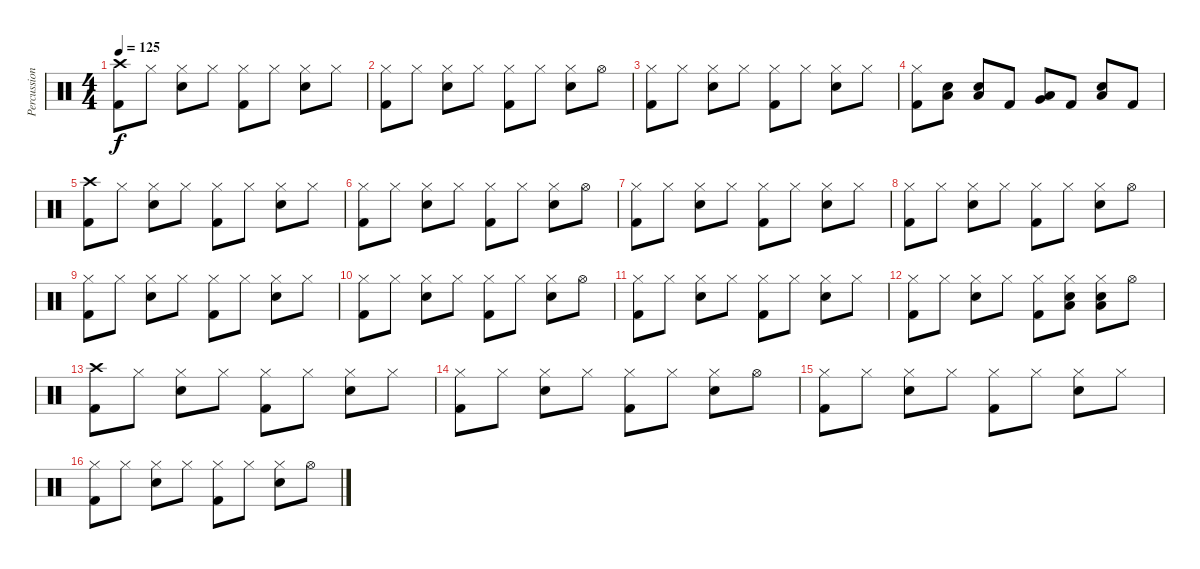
\track ("Percussion" "Percussion") {instrument percussion}
\staff {score}
\articulation defaults
\ts (4 4)
\tempo 125
\clef neutral
\ks c
("Crash high (hit)" "Kick (hit) 2").8{dy f} "Hi-Hat (closed)".8 ("Hi-Hat (closed)" "Snare (hit) 2").8 "Hi-Hat (closed)".8 ("Hi-Hat (closed)" "Kick (hit) 2").8 "Hi-Hat (closed)".8 ("Hi-Hat (closed)" "Snare (hit) 2").8 "Hi-Hat (closed)".8 |
("Hi-Hat (closed)" "Kick (hit) 2").8 "Hi-Hat (closed)".8 ("Hi-Hat (closed)" "Snare (hit) 2").8 "Hi-Hat (closed)".8 ("Hi-Hat (closed)" "Kick (hit) 2").8 "Hi-Hat (closed)".8 ("Hi-Hat (closed)" "Snare (hit) 2").8 "Hi-Hat (open)".8 |
("Hi-Hat (closed)" "Kick (hit) 2").8 "Hi-Hat (closed)".8 ("Hi-Hat (closed)" "Snare (hit) 2").8 "Hi-Hat (closed)".8 ("Hi-Hat (closed)" "Kick (hit) 2").8 "Hi-Hat (closed)".8 ("Hi-Hat (closed)" "Snare (hit) 2").8 "Hi-Hat (closed)".8 |
("Hi-Hat (closed)" "Kick (hit) 2").8 ("Snare (hit) 2" "Low Floor Tom (hit)").8 ("Snare (hit) 2" "Low Floor Tom (hit)").8 "Kick (hit) 2".8 ("Very Low Tom (hit)" "Low Floor Tom (hit)").8 "Kick (hit) 2".8 ("Snare (hit) 2" "Low Floor Tom (hit)").8 "Kick (hit) 2".8 |
("Crash high (hit)" "Kick (hit) 2").8 "Hi-Hat (closed)".8 ("Hi-Hat (closed)" "Snare (hit) 2").8 "Hi-Hat (closed)".8 ("Hi-Hat (closed)" "Kick (hit) 2").8 "Hi-Hat (closed)".8 ("Hi-Hat (closed)" "Snare (hit) 2").8 "Hi-Hat (closed)".8 |
("Hi-Hat (closed)" "Kick (hit) 2").8 "Hi-Hat (closed)".8 ("Hi-Hat (closed)" "Snare (hit) 2").8 "Hi-Hat (closed)".8 ("Hi-Hat (closed)" "Kick (hit) 2").8 "Hi-Hat (closed)".8 ("Hi-Hat (closed)" "Snare (hit) 2").8 "Hi-Hat (open)".8 |
("Hi-Hat (closed)" "Kick (hit) 2").8 "Hi-Hat (closed)".8 ("Hi-Hat (closed)" "Snare (hit) 2").8 "Hi-Hat (closed)".8 ("Hi-Hat (closed)" "Kick (hit) 2").8 "Hi-Hat (closed)".8 ("Hi-Hat (closed)" "Snare (hit) 2").8 "Hi-Hat (closed)".8 |
("Hi-Hat (closed)" "Kick (hit) 2").8 "Hi-Hat (closed)".8 ("Hi-Hat (closed)" "Snare (hit) 2").8 "Hi-Hat (closed)".8 ("Hi-Hat (closed)" "Kick (hit) 2").8 "Hi-Hat (closed)".8 ("Hi-Hat (closed)" "Snare (hit) 2").8 "Hi-Hat (open)".8 |
("Hi-Hat (closed)" "Kick (hit) 2").8 "Hi-Hat (closed)".8 ("Hi-Hat (closed)" "Snare (hit) 2").8 "Hi-Hat (closed)".8 ("Hi-Hat (closed)" "Kick (hit) 2").8 "Hi-Hat (closed)".8 ("Hi-Hat (closed)" "Snare (hit) 2").8 "Hi-Hat (closed)".8 |
("Hi-Hat (closed)" "Kick (hit) 2").8 "Hi-Hat (closed)".8 ("Hi-Hat (closed)" "Snare (hit) 2").8 "Hi-Hat (closed)".8 ("Hi-Hat (closed)" "Kick (hit) 2").8 "Hi-Hat (closed)".8 ("Hi-Hat (closed)" "Snare (hit) 2").8 "Hi-Hat (open)".8 |
("Hi-Hat (closed)" "Kick (hit) 2").8 "Hi-Hat (closed)".8 ("Hi-Hat (closed)" "Snare (hit) 2").8 "Hi-Hat (closed)".8 ("Hi-Hat (closed)" "Kick (hit) 2").8 "Hi-Hat (closed)".8 ("Hi-Hat (closed)" "Snare (hit) 2").8 "Hi-Hat (closed)".8 |
("Hi-Hat (closed)" "Kick (hit) 2").8 "Hi-Hat (closed)".8 ("Hi-Hat (closed)" "Snare (hit) 2").8 "Hi-Hat (closed)".8 ("Hi-Hat (closed)" "Kick (hit) 2").8 ("Hi-Hat (closed)" "Snare (hit) 2" "Low Floor Tom (hit)").8 ("Hi-Hat (closed)" "Snare (hit) 2" "Low Floor Tom (hit)").8 "Hi-Hat (open)".8 |
("Crash high (hit)" "Kick (hit) 2").8 "Hi-Hat (closed)".8 ("Hi-Hat (closed)" "Snare (hit) 2").8 "Hi-Hat (closed)".8 ("Hi-Hat (closed)" "Kick (hit) 2").8 "Hi-Hat (closed)".8 ("Hi-Hat (closed)" "Snare (hit) 2").8 "Hi-Hat (closed)".8 |
("Hi-Hat (closed)" "Kick (hit) 2").8 "Hi-Hat (closed)".8 ("Hi-Hat (closed)" "Snare (hit) 2").8 "Hi-Hat (closed)".8 ("Hi-Hat (closed)" "Kick (hit) 2").8 "Hi-Hat (closed)".8 ("Hi-Hat (closed)" "Snare (hit) 2").8 "Hi-Hat (open)".8 |
("Hi-Hat (closed)" "Kick (hit) 2").8 "Hi-Hat (closed)".8 ("Hi-Hat (closed)" "Snare (hit) 2").8 "Hi-Hat (closed)".8 ("Hi-Hat (closed)" "Kick (hit) 2").8 "Hi-Hat (closed)".8 ("Hi-Hat (closed)" "Snare (hit) 2").8 "Hi-Hat (closed)".8 |
("Hi-Hat (closed)" "Kick (hit) 2").8 "Hi-Hat (closed)".8 ("Hi-Hat (closed)" "Snare (hit) 2").8 "Hi-Hat (closed)".8 ("Hi-Hat (closed)" "Kick (hit) 2").8 "Hi-Hat (closed)".8 ("Hi-Hat (closed)" "Snare (hit) 2").8 "Hi-Hat (open)".8
